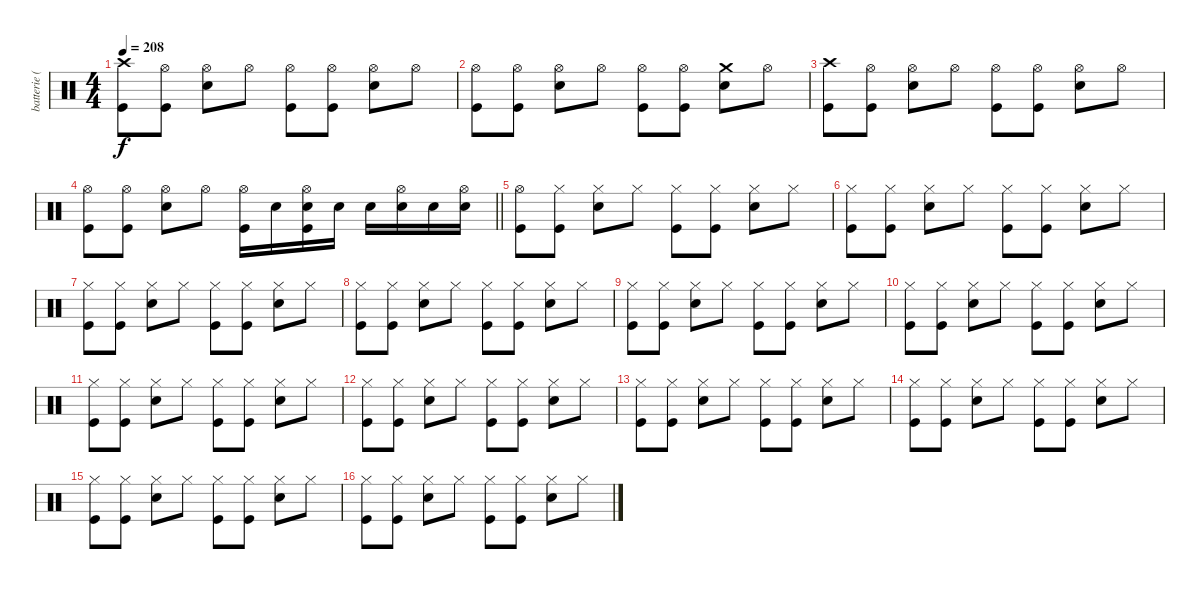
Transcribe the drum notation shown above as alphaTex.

\track ("batterie ( Guillaume ) " "batterie (") {instrument percussion}
\staff {score}
\articulation defaults
\ts (4 4)
\tempo 208
\clef neutral
\ks c
("Crash high (hit)" "Kick (hit)").8{dy f} ("Hi-Hat (open)" "Kick (hit)").8 ("Hi-Hat (open)" "Electric Snare (hit)").8 "Hi-Hat (open)".8 ("Hi-Hat (open)" "Kick (hit)").8 ("Hi-Hat (open)" "Kick (hit)").8 ("Hi-Hat (open)" "Electric Snare (hit)").8 "Hi-Hat (open)".8 |
("Hi-Hat (open)" "Kick (hit)").8 ("Hi-Hat (open)" "Kick (hit)").8 ("Hi-Hat (open)" "Electric Snare (hit)").8 "Hi-Hat (open)".8 ("Hi-Hat (open)" "Kick (hit)").8 ("Hi-Hat (open)" "Kick (hit)").8 ("Crash medium (hit)" "Electric Snare (hit)").8 "Hi-Hat (open)".8 |
("Crash high (hit)" "Kick (hit)").8 ("Hi-Hat (open)" "Kick (hit)").8 ("Hi-Hat (open)" "Electric Snare (hit)").8 "Hi-Hat (open)".8 ("Hi-Hat (open)" "Kick (hit)").8 ("Hi-Hat (open)" "Kick (hit)").8 ("Hi-Hat (open)" "Electric Snare (hit)").8 "Hi-Hat (open)".8 |
\barLineRight lightlight
("Hi-Hat (open)" "Kick (hit)").8 ("Hi-Hat (open)" "Kick (hit)").8 ("Hi-Hat (open)" "Electric Snare (hit)").8 "Hi-Hat (open)".8 ("Hi-Hat (open)" "Kick (hit)").16 "Electric Snare (hit)".16 ("Hi-Hat (open)" "Electric Snare (hit)" "Kick (hit)").16 "Electric Snare (hit)".16 "Electric Snare (hit)".16 ("Hi-Hat (open)" "Electric Snare (hit)").16 "Electric Snare (hit)".16 ("Hi-Hat (open)" "Electric Snare (hit)").16 |
("Hi-Hat (open)" "Kick (hit)").8 ("Hi-Hat (closed)" "Kick (hit)").8 ("Hi-Hat (closed)" "Electric Snare (hit)").8 "Hi-Hat (closed)".8 ("Hi-Hat (closed)" "Kick (hit)").8 ("Hi-Hat (closed)" "Kick (hit)").8 ("Hi-Hat (closed)" "Electric Snare (hit)").8 "Hi-Hat (closed)".8 |
("Hi-Hat (closed)" "Kick (hit)").8 ("Hi-Hat (closed)" "Kick (hit)").8 ("Hi-Hat (closed)" "Electric Snare (hit)").8 "Hi-Hat (closed)".8 ("Hi-Hat (closed)" "Kick (hit)").8 ("Hi-Hat (closed)" "Kick (hit)").8 ("Hi-Hat (closed)" "Electric Snare (hit)").8 "Hi-Hat (closed)".8 |
("Hi-Hat (closed)" "Kick (hit)").8 ("Hi-Hat (closed)" "Kick (hit)").8 ("Hi-Hat (closed)" "Electric Snare (hit)").8 "Hi-Hat (closed)".8 ("Hi-Hat (closed)" "Kick (hit)").8 ("Hi-Hat (closed)" "Kick (hit)").8 ("Hi-Hat (closed)" "Electric Snare (hit)").8 "Hi-Hat (closed)".8 |
("Hi-Hat (closed)" "Kick (hit)").8 ("Hi-Hat (closed)" "Kick (hit)").8 ("Hi-Hat (closed)" "Electric Snare (hit)").8 "Hi-Hat (closed)".8 ("Hi-Hat (closed)" "Kick (hit)").8 ("Hi-Hat (closed)" "Kick (hit)").8 ("Hi-Hat (closed)" "Electric Snare (hit)").8 "Hi-Hat (closed)".8 |
("Hi-Hat (closed)" "Kick (hit)").8 ("Hi-Hat (closed)" "Kick (hit)").8 ("Hi-Hat (closed)" "Electric Snare (hit)").8 "Hi-Hat (closed)".8 ("Hi-Hat (closed)" "Kick (hit)").8 ("Hi-Hat (closed)" "Kick (hit)").8 ("Hi-Hat (closed)" "Electric Snare (hit)").8 "Hi-Hat (closed)".8 |
("Hi-Hat (closed)" "Kick (hit)").8 ("Hi-Hat (closed)" "Kick (hit)").8 ("Hi-Hat (closed)" "Electric Snare (hit)").8 "Hi-Hat (closed)".8 ("Hi-Hat (closed)" "Kick (hit)").8 ("Hi-Hat (closed)" "Kick (hit)").8 ("Hi-Hat (closed)" "Electric Snare (hit)").8 "Hi-Hat (closed)".8 |
("Hi-Hat (closed)" "Kick (hit)").8 ("Hi-Hat (closed)" "Kick (hit)").8 ("Hi-Hat (closed)" "Electric Snare (hit)").8 "Hi-Hat (closed)".8 ("Hi-Hat (closed)" "Kick (hit)").8 ("Hi-Hat (closed)" "Kick (hit)").8 ("Hi-Hat (closed)" "Electric Snare (hit)").8 "Hi-Hat (closed)".8 |
("Hi-Hat (closed)" "Kick (hit)").8 ("Hi-Hat (closed)" "Kick (hit)").8 ("Hi-Hat (closed)" "Electric Snare (hit)").8 "Hi-Hat (closed)".8 ("Hi-Hat (closed)" "Kick (hit)").8 ("Hi-Hat (closed)" "Kick (hit)").8 ("Hi-Hat (closed)" "Electric Snare (hit)").8 "Hi-Hat (closed)".8 |
("Hi-Hat (closed)" "Kick (hit)").8 ("Hi-Hat (closed)" "Kick (hit)").8 ("Hi-Hat (closed)" "Electric Snare (hit)").8 "Hi-Hat (closed)".8 ("Hi-Hat (closed)" "Kick (hit)").8 ("Hi-Hat (closed)" "Kick (hit)").8 ("Hi-Hat (closed)" "Electric Snare (hit)").8 "Hi-Hat (closed)".8 |
("Hi-Hat (closed)" "Kick (hit)").8 ("Hi-Hat (closed)" "Kick (hit)").8 ("Hi-Hat (closed)" "Electric Snare (hit)").8 "Hi-Hat (closed)".8 ("Hi-Hat (closed)" "Kick (hit)").8 ("Hi-Hat (closed)" "Kick (hit)").8 ("Hi-Hat (closed)" "Electric Snare (hit)").8 "Hi-Hat (closed)".8 |
("Hi-Hat (closed)" "Kick (hit)").8 ("Hi-Hat (closed)" "Kick (hit)").8 ("Hi-Hat (closed)" "Electric Snare (hit)").8 "Hi-Hat (closed)".8 ("Hi-Hat (closed)" "Kick (hit)").8 ("Hi-Hat (closed)" "Kick (hit)").8 ("Hi-Hat (closed)" "Electric Snare (hit)").8 "Hi-Hat (closed)".8 |
("Hi-Hat (closed)" "Kick (hit)").8 ("Hi-Hat (closed)" "Kick (hit)").8 ("Hi-Hat (closed)" "Electric Snare (hit)").8 "Hi-Hat (closed)".8 ("Hi-Hat (closed)" "Kick (hit)").8 ("Hi-Hat (closed)" "Kick (hit)").8 ("Hi-Hat (closed)" "Electric Snare (hit)").8 "Hi-Hat (closed)".8
